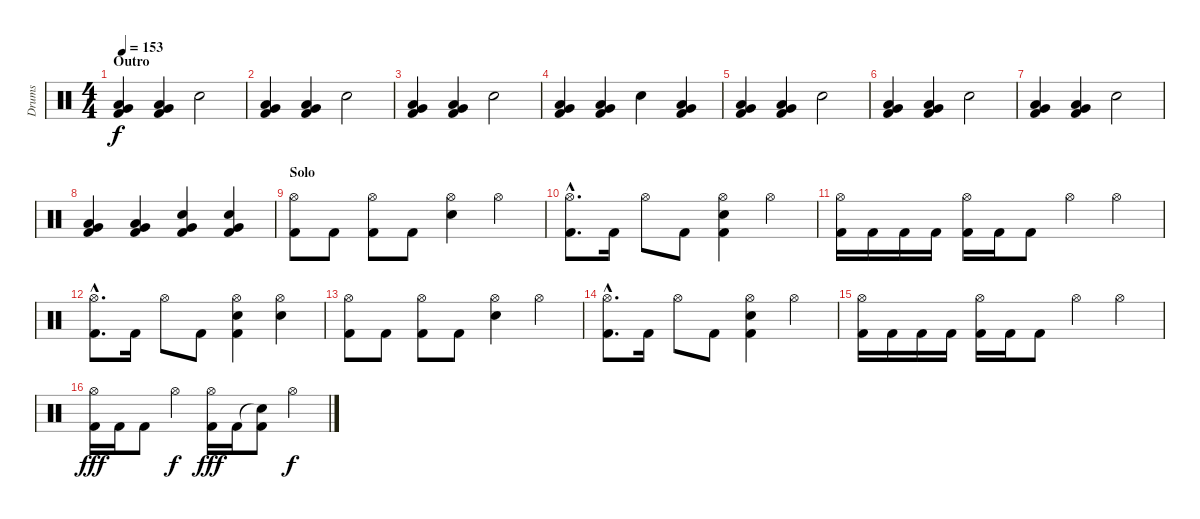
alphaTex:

\track ("Drums" "Drums") {instrument percussion}
\staff {score}
\articulation defaults
\ts (4 4)
\section ("" "Outro")
\tempo 153
\clef neutral
\ks c
("Very Low Tom (hit)" "Low Floor Tom (hit)" "Kick (hit) 2").4{dy f} ("Very Low Tom (hit)" "Low Floor Tom (hit)" "Kick (hit) 2").4 "Electric Snare (hit)".2 |
("Very Low Tom (hit)" "Low Floor Tom (hit)" "Kick (hit) 2").4 ("Very Low Tom (hit)" "Low Floor Tom (hit)" "Kick (hit) 2").4 "Electric Snare (hit)".2 |
("Very Low Tom (hit)" "Low Floor Tom (hit)" "Kick (hit) 2").4 ("Very Low Tom (hit)" "Low Floor Tom (hit)" "Kick (hit) 2").4 "Electric Snare (hit)".2 |
("Very Low Tom (hit)" "Low Floor Tom (hit)" "Kick (hit) 2").4 ("Very Low Tom (hit)" "Low Floor Tom (hit)" "Kick (hit) 2").4 "Electric Snare (hit)".4 ("Very Low Tom (hit)" "Low Floor Tom (hit)" "Kick (hit) 2").4 |
("Very Low Tom (hit)" "Low Floor Tom (hit)" "Kick (hit) 2").4 ("Very Low Tom (hit)" "Low Floor Tom (hit)" "Kick (hit) 2").4 "Electric Snare (hit)".2 |
("Very Low Tom (hit)" "Low Floor Tom (hit)" "Kick (hit) 2").4 ("Very Low Tom (hit)" "Low Floor Tom (hit)" "Kick (hit) 2").4 "Electric Snare (hit)".2 |
("Very Low Tom (hit)" "Low Floor Tom (hit)" "Kick (hit) 2").4 ("Very Low Tom (hit)" "Low Floor Tom (hit)" "Kick (hit) 2").4 "Electric Snare (hit)".2 |
("Very Low Tom (hit)" "Low Floor Tom (hit)" "Kick (hit) 2").4 ("Very Low Tom (hit)" "Low Floor Tom (hit)" "Kick (hit) 2").4 ("Electric Snare (hit)" "Very Low Tom (hit)" "Kick (hit) 2").4 ("Electric Snare (hit)" "Very Low Tom (hit)" "Kick (hit) 2").4 |
\section ("" "Solo")
("Hi-Hat (open)" "Kick (hit) 2").8 "Kick (hit) 2".8 ("Hi-Hat (open)" "Kick (hit) 2").8 "Kick (hit) 2".8 ("Hi-Hat (open)" "Electric Snare (hit)").4 "Hi-Hat (open)".4 |
("Hi-Hat (open)"{hac} "Kick (hit) 2"{hac}).8{d} "Kick (hit) 2".16 "Hi-Hat (open)".8 "Kick (hit) 2".8 ("Hi-Hat (open)" "Electric Snare (hit)" "Kick (hit) 2").4 "Hi-Hat (open)".4 |
("Hi-Hat (open)" "Kick (hit) 2").16 "Kick (hit) 2".16 "Kick (hit) 2".16 "Kick (hit) 2".16 ("Hi-Hat (open)" "Kick (hit) 2").16 "Kick (hit) 2".16 "Kick (hit) 2".8 "Hi-Hat (open)".4 "Hi-Hat (open)".4 |
("Hi-Hat (open)"{hac} "Kick (hit) 2"{hac}).8{d} "Kick (hit) 2".16 "Hi-Hat (open)".8 "Kick (hit) 2".8 ("Hi-Hat (open)" "Electric Snare (hit)" "Kick (hit) 2").4 ("Hi-Hat (open)" "Electric Snare (hit)").4 |
("Hi-Hat (open)" "Kick (hit) 2").8 "Kick (hit) 2".8 ("Hi-Hat (open)" "Kick (hit) 2").8 "Kick (hit) 2".8 ("Hi-Hat (open)" "Electric Snare (hit)").4 "Hi-Hat (open)".4 |
("Hi-Hat (open)"{hac} "Kick (hit) 2"{hac}).8{d} "Kick (hit) 2".16 "Hi-Hat (open)".8 "Kick (hit) 2".8 ("Hi-Hat (open)" "Electric Snare (hit)" "Kick (hit) 2").4 "Hi-Hat (open)".4 |
("Hi-Hat (open)" "Kick (hit) 2").16 "Kick (hit) 2".16 "Kick (hit) 2".16 "Kick (hit) 2".16 ("Hi-Hat (open)" "Kick (hit) 2").16 "Kick (hit) 2".16 "Kick (hit) 2".8 "Hi-Hat (open)".4 "Hi-Hat (open)".4 |
("Hi-Hat (open)" "Kick (hit) 2").16{dy fff} "Kick (hit) 2".16 "Kick (hit) 2".8 "Hi-Hat (open)".4{dy f} ("Hi-Hat (open)" "Kick (hit) 2").16{dy fff} "Kick (hit) 2".16 ("Snare (hit)"{t} "Kick (hit) 2").8 "Hi-Hat (open)".4{dy f}
